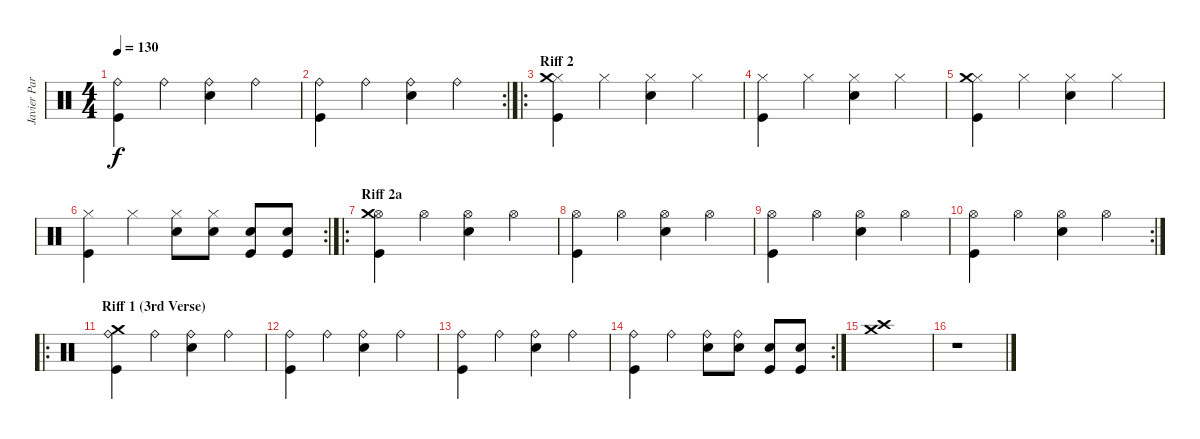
\track ("Javier Partida" "Javier Par") {instrument percussion}
\staff {score}
\articulation defaults
\ts (4 4)
\tempo 130
\clef neutral
\ks c
("Ride (bell)" "Kick (hit)").4{dy f} "Ride (bell)".4 ("Ride (bell)" "Snare (hit) 2").4 "Ride (bell)".4 |
\rc 2
("Ride (bell)" "Kick (hit)").4 "Ride (bell)".4 ("Ride (bell)" "Snare (hit) 2").4 "Ride (bell)".4 |
\ro
\section ("" "Riff 2")
("Hi-Hat (closed)" "Kick (hit)" "Crash medium (hit)").4 "Hi-Hat (closed)".4 ("Hi-Hat (closed)" "Snare (hit) 2").4 "Hi-Hat (closed)".4 |
("Hi-Hat (closed)" "Kick (hit)").4 "Hi-Hat (closed)".4 ("Hi-Hat (closed)" "Snare (hit) 2").4 "Hi-Hat (closed)".4 |
("Hi-Hat (closed)" "Kick (hit)" "Crash medium (hit)").4 "Hi-Hat (closed)".4 ("Hi-Hat (closed)" "Snare (hit) 2").4 "Hi-Hat (closed)".4 |
\rc 2
("Hi-Hat (closed)" "Kick (hit)").4 "Hi-Hat (closed)".4 ("Hi-Hat (closed)" "Snare (hit) 2").8 ("Hi-Hat (closed)" "Snare (hit) 2").8 ("Kick (hit)" "Snare (hit) 2").8 ("Kick (hit)" "Snare (hit) 2").8 |
\ro
\section ("" "Riff 2a")
("Hi-Hat (open)" "Kick (hit)" "Crash medium (hit)").4 "Hi-Hat (open)".4 ("Hi-Hat (open)" "Snare (hit) 2").4 "Hi-Hat (open)".4 |
("Hi-Hat (open)" "Kick (hit)").4 "Hi-Hat (open)".4 ("Hi-Hat (open)" "Snare (hit) 2").4 "Hi-Hat (open)".4 |
("Hi-Hat (open)" "Kick (hit)").4 "Hi-Hat (open)".4 ("Hi-Hat (open)" "Snare (hit) 2").4 "Hi-Hat (open)".4 |
\rc 2
("Hi-Hat (open)" "Kick (hit)").4 "Hi-Hat (open)".4 ("Hi-Hat (open)" "Snare (hit) 2").4 "Hi-Hat (open)".4 |
\ro
\section ("" "Riff 1 (3rd Verse)")
("Ride (bell)" "Kick (hit)" "Crash medium (hit)").4 "Ride (bell)".4 ("Ride (bell)" "Snare (hit) 2").4 "Ride (bell)".4 |
("Ride (bell)" "Kick (hit)").4 "Ride (bell)".4 ("Ride (bell)" "Snare (hit) 2").4 "Ride (bell)".4 |
("Ride (bell)" "Kick (hit)").4 "Ride (bell)".4 ("Ride (bell)" "Snare (hit) 2").4 "Ride (bell)".4 |
\rc 2
("Ride (bell)" "Kick (hit)").4 "Ride (bell)".4 ("Ride (bell)" "Snare (hit) 2").8 ("Ride (bell)" "Snare (hit) 2").8 ("Kick (hit)" "Snare (hit) 2").8 ("Kick (hit)" "Snare (hit) 2").8 |
("Crash medium (hit)" "Crash high (hit)").1 |
r.1
